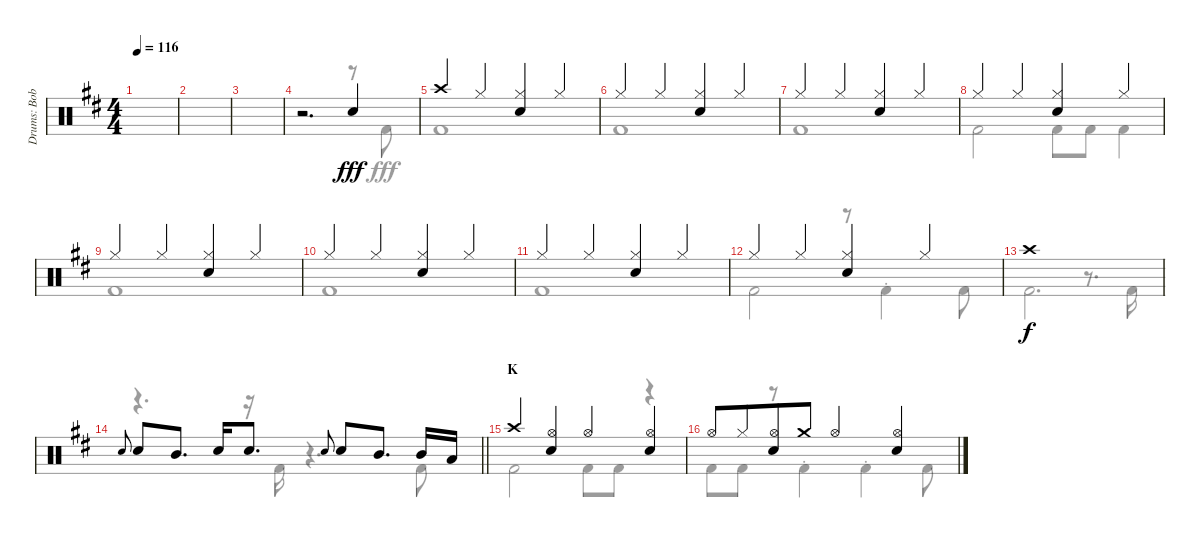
\track ("Drums: Bobby" "Drums: Bob") {instrument percussion}
\staff {score}
\articulation defaults
\voice
\ts (4 4)
\tempo 116
\clef neutral
\ks d
|
|
|
r.2{d} "Snare (hit) 2".4{dy fff} |
"Crash high (hit)".4 "Hi-Hat (closed)".4 ("Hi-Hat (closed)" "Electric Snare (hit)").4 "Hi-Hat (closed)".4 |
"Hi-Hat (closed)".4 "Hi-Hat (closed)".4 ("Hi-Hat (closed)" "Electric Snare (hit)").4 "Hi-Hat (closed)".4 |
"Hi-Hat (closed)".4 "Hi-Hat (closed)".4 ("Hi-Hat (closed)" "Electric Snare (hit)").4 "Hi-Hat (closed)".4 |
"Hi-Hat (closed)".4 "Hi-Hat (closed)".4 ("Hi-Hat (closed)" "Electric Snare (hit)").4 "Hi-Hat (closed)".4 |
"Hi-Hat (closed)".4 "Hi-Hat (closed)".4 ("Hi-Hat (closed)" "Electric Snare (hit)").4 "Hi-Hat (closed)".4 |
"Hi-Hat (closed)".4 "Hi-Hat (closed)".4 ("Hi-Hat (closed)" "Electric Snare (hit)").4 "Hi-Hat (closed)".4 |
"Hi-Hat (closed)".4 "Hi-Hat (closed)".4 ("Hi-Hat (closed)" "Electric Snare (hit)").4 "Hi-Hat (closed)".4 |
"Hi-Hat (closed)".4 "Hi-Hat (closed)".4 ("Hi-Hat (closed)" "Electric Snare (hit)").4 "Hi-Hat (closed)".4 |
"Crash high (hit)".1{dy f} |
\barLineRight lightlight "Electric Snare (hit)".8{gr onbeat} "Snare (hit) 2".8 "Mid Tom (hit)".8{d} "Snare (hit) 2".16 "Snare (hit) 2".8{d} "Electric Snare (hit)".8{gr onbeat} "Snare (hit) 2".8 "Mid Tom (hit)".8{d} "Mid Tom (hit)".16 "Low Tom (hit)".16
|
\section ("" "K")
"Crash high (hit)".4 ("Hi-Hat (open)" "Snare (hit) 2").4 "Hi-Hat (open)".4 ("Hi-Hat (open)" "Snare (hit) 2").4 |
"Hi-Hat (open)".8 "Hi-Hat (closed)".8{beam merge} ("Hi-Hat (open)" "Snare (hit) 2").8 "Crash medium (hit)".8 "Hi-Hat (open)".4 ("Hi-Hat (open)" "Snare (hit) 2").4
\voice
\clef neutral
\ottava regular
\simile none
\ks d
|
|
|
r.2{d} r.8 "Kick (hit) 2".8{dy fff} |
"Kick (hit) 2".1 |
"Kick (hit) 2".1 |
"Kick (hit) 2".1 |
"Kick (hit) 2".2 "Kick (hit) 2".8 "Kick (hit) 2".8 "Kick (hit) 2".4 |
"Kick (hit) 2".1 |
"Kick (hit) 2".1 |
"Kick (hit) 2".1 |
"Kick (hit) 2".2 r.8 "Kick (hit) 2"{st}.4 "Kick (hit) 2".8 |
"Kick (hit) 2".2{d dy f} r.8{d} "Kick (hit) 2".16 |
\barLineRight lightlight
r.4{d} r.16 "Kick (hit) 2".16 r.4{d} "Kick (hit) 2".8 |
"Kick (hit) 2".2 "Kick (hit) 2".8 "Kick (hit) 2".8 r.4 |
"Kick (hit) 2".8 "Kick (hit) 2".8 r.8 "Kick (hit) 2"{st}.4 "Kick (hit) 2"{st}.4 "Kick (hit) 2".8
